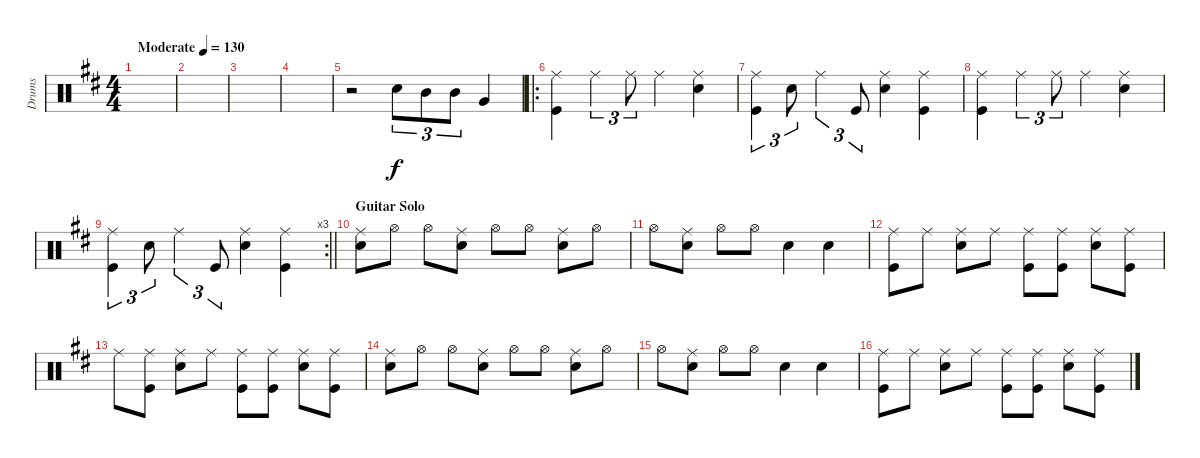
\track ("Drums" "Drums") {instrument percussion}
\staff {score}
\articulation defaults
\ts (4 4)
\tempo (130 "Moderate")
\clef neutral
\ks d
|
|
|
|
r.2 "Snare (hit) 2".8{tu (3 2)} "Mid Tom (hit)".8{tu (3 2)} "Mid Tom (hit)".8{tu (3 2)} "Very Low Tom (hit)".4 |
\ro
("Ride (middle)" "Kick (hit)").4 "Ride (middle)".4{tu (3 2)} "Ride (middle)".8{tu (3 2)} "Ride (middle)".4 ("Ride (middle)" "Snare (hit) 2").4 |
("Ride (middle)" "Kick (hit)").4{tu (3 2)} "Snare (hit) 2".8{tu (3 2)} "Ride (middle)".4{tu (3 2)} "Kick (hit)".8{tu (3 2)} ("Ride (middle)" "Snare (hit) 2").4 ("Ride (middle)" "Kick (hit)").4 |
("Ride (middle)" "Kick (hit)").4 "Ride (middle)".4{tu (3 2)} "Ride (middle)".8{tu (3 2)} "Ride (middle)".4 ("Ride (middle)" "Snare (hit) 2").4 |
\rc 3
\barLineRight lightlight
("Ride (middle)" "Kick (hit)").4{tu (3 2)} "Snare (hit) 2".8{tu (3 2)} "Ride (middle)".4{tu (3 2)} "Kick (hit)".8{tu (3 2)} ("Ride (middle)" "Snare (hit) 2").4 ("Ride (middle)" "Kick (hit)").4 |
\section ("" "Guitar Solo")
("Ride (middle)" "Snare (hit) 2").8 "Hi-Hat (open)".8 "Hi-Hat (open)".8 ("Ride (middle)" "Snare (hit) 2").8 "Hi-Hat (open)".8 "Hi-Hat (open)".8 ("Ride (middle)" "Snare (hit) 2").8 "Hi-Hat (open)".8 |
"Hi-Hat (open)".8 ("Ride (middle)" "Snare (hit) 2").8 "Hi-Hat (open)".8 "Hi-Hat (open)".8 "Snare (hit) 2".4 "Snare (hit) 2".4 |
("Ride (middle)" "Kick (hit)").8 "Ride (middle)".8 ("Ride (middle)" "Snare (hit) 2").8 "Ride (middle)".8 ("Ride (middle)" "Kick (hit)").8 ("Ride (middle)" "Kick (hit)").8 ("Ride (middle)" "Snare (hit) 2").8 ("Ride (middle)" "Kick (hit)").8 |
"Ride (middle)".8 ("Ride (middle)" "Kick (hit)").8 ("Ride (middle)" "Snare (hit) 2").8 "Ride (middle)".8 ("Ride (middle)" "Kick (hit)").8 ("Ride (middle)" "Kick (hit)").8 ("Ride (middle)" "Snare (hit) 2").8 ("Ride (middle)" "Kick (hit)").8 |
("Ride (middle)" "Snare (hit) 2").8 "Hi-Hat (open)".8 "Hi-Hat (open)".8 ("Ride (middle)" "Snare (hit) 2").8 "Hi-Hat (open)".8 "Hi-Hat (open)".8 ("Ride (middle)" "Snare (hit) 2").8 "Hi-Hat (open)".8 |
"Hi-Hat (open)".8 ("Ride (middle)" "Snare (hit) 2").8 "Hi-Hat (open)".8 "Hi-Hat (open)".8 "Snare (hit) 2".4 "Snare (hit) 2".4 |
("Ride (middle)" "Kick (hit)").8 "Ride (middle)".8 ("Ride (middle)" "Snare (hit) 2").8 "Ride (middle)".8 ("Ride (middle)" "Kick (hit)").8 ("Ride (middle)" "Kick (hit)").8 ("Ride (middle)" "Snare (hit) 2").8 ("Ride (middle)" "Kick (hit)").8
